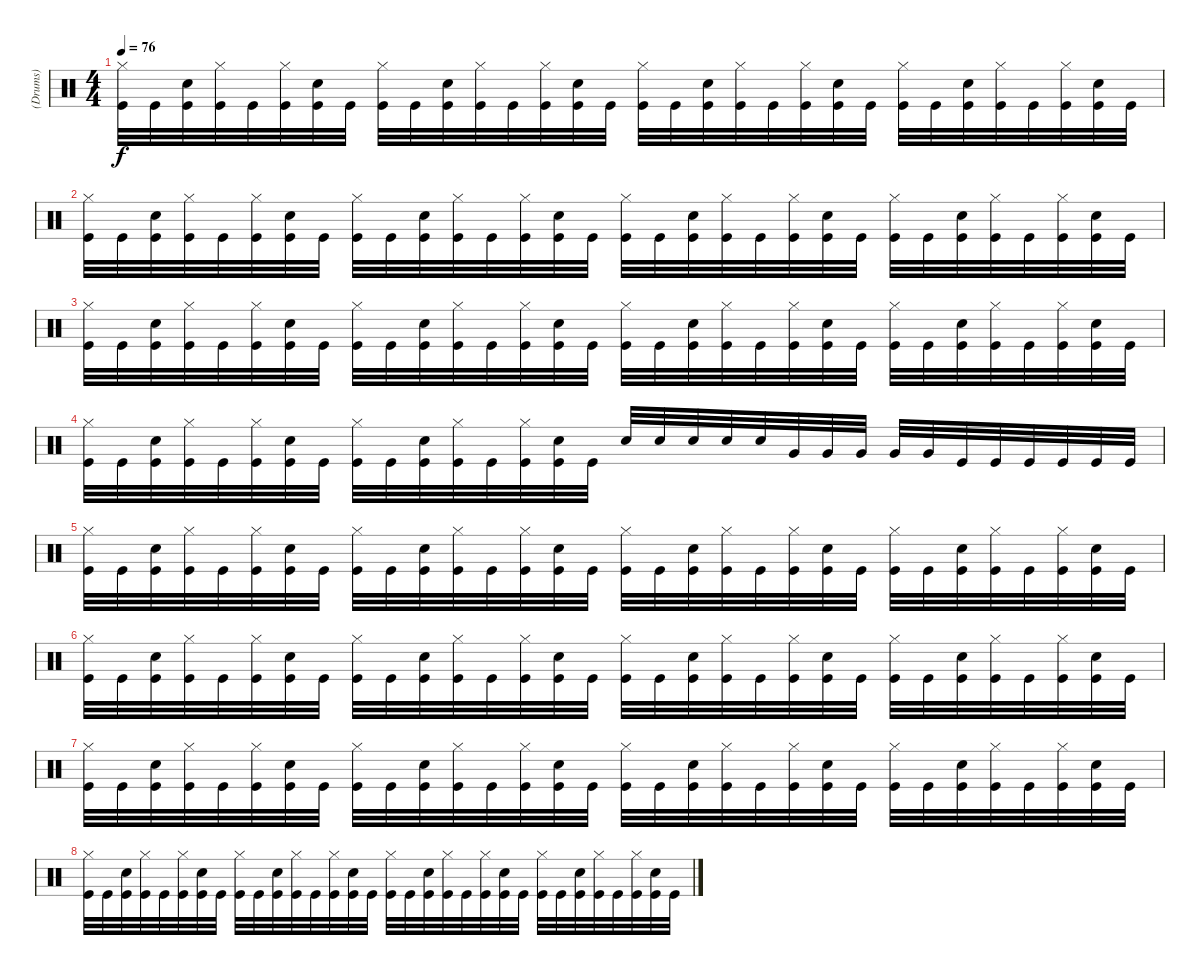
\track ("(Drums)" "(Drums)") {instrument percussion}
\staff {score}
\articulation defaults
\ts (4 4)
\tempo 76
\clef neutral
\ks c
("Hi-Hat (closed)" "Kick (hit)").32{dy f} "Kick (hit)".32 ("Electric Snare (hit)" "Kick (hit)").32 ("Hi-Hat (closed)" "Kick (hit)").32 "Kick (hit)".32 ("Hi-Hat (closed)" "Kick (hit)").32 ("Electric Snare (hit)" "Kick (hit)").32 "Kick (hit)".32 ("Hi-Hat (closed)" "Kick (hit)").32 "Kick (hit)".32 ("Electric Snare (hit)" "Kick (hit)").32 ("Hi-Hat (closed)" "Kick (hit)").32 "Kick (hit)".32 ("Hi-Hat (closed)" "Kick (hit)").32 ("Electric Snare (hit)" "Kick (hit)").32 "Kick (hit)".32 ("Hi-Hat (closed)" "Kick (hit)").32 "Kick (hit)".32 ("Electric Snare (hit)" "Kick (hit)").32 ("Hi-Hat (closed)" "Kick (hit)").32 "Kick (hit)".32 ("Hi-Hat (closed)" "Kick (hit)").32 ("Electric Snare (hit)" "Kick (hit)").32 "Kick (hit)".32 ("Hi-Hat (closed)" "Kick (hit)").32 "Kick (hit)".32 ("Electric Snare (hit)" "Kick (hit)").32 ("Hi-Hat (closed)" "Kick (hit)").32 "Kick (hit)".32 ("Hi-Hat (closed)" "Kick (hit)").32 ("Electric Snare (hit)" "Kick (hit)").32 "Kick (hit)".32 |
("Hi-Hat (closed)" "Kick (hit)").32 "Kick (hit)".32 ("Electric Snare (hit)" "Kick (hit)").32 ("Hi-Hat (closed)" "Kick (hit)").32 "Kick (hit)".32 ("Hi-Hat (closed)" "Kick (hit)").32 ("Electric Snare (hit)" "Kick (hit)").32 "Kick (hit)".32 ("Hi-Hat (closed)" "Kick (hit)").32 "Kick (hit)".32 ("Electric Snare (hit)" "Kick (hit)").32 ("Hi-Hat (closed)" "Kick (hit)").32 "Kick (hit)".32 ("Hi-Hat (closed)" "Kick (hit)").32 ("Electric Snare (hit)" "Kick (hit)").32 "Kick (hit)".32 ("Hi-Hat (closed)" "Kick (hit)").32 "Kick (hit)".32 ("Electric Snare (hit)" "Kick (hit)").32 ("Hi-Hat (closed)" "Kick (hit)").32 "Kick (hit)".32 ("Hi-Hat (closed)" "Kick (hit)").32 ("Electric Snare (hit)" "Kick (hit)").32 "Kick (hit)".32 ("Hi-Hat (closed)" "Kick (hit)").32 "Kick (hit)".32 ("Electric Snare (hit)" "Kick (hit)").32 ("Hi-Hat (closed)" "Kick (hit)").32 "Kick (hit)".32 ("Hi-Hat (closed)" "Kick (hit)").32 ("Electric Snare (hit)" "Kick (hit)").32 "Kick (hit)".32 |
("Hi-Hat (closed)" "Kick (hit)").32 "Kick (hit)".32 ("Electric Snare (hit)" "Kick (hit)").32 ("Hi-Hat (closed)" "Kick (hit)").32 "Kick (hit)".32 ("Hi-Hat (closed)" "Kick (hit)").32 ("Electric Snare (hit)" "Kick (hit)").32 "Kick (hit)".32 ("Hi-Hat (closed)" "Kick (hit)").32 "Kick (hit)".32 ("Electric Snare (hit)" "Kick (hit)").32 ("Hi-Hat (closed)" "Kick (hit)").32 "Kick (hit)".32 ("Hi-Hat (closed)" "Kick (hit)").32 ("Electric Snare (hit)" "Kick (hit)").32 "Kick (hit)".32 ("Hi-Hat (closed)" "Kick (hit)").32 "Kick (hit)".32 ("Electric Snare (hit)" "Kick (hit)").32 ("Hi-Hat (closed)" "Kick (hit)").32 "Kick (hit)".32 ("Hi-Hat (closed)" "Kick (hit)").32 ("Electric Snare (hit)" "Kick (hit)").32 "Kick (hit)".32 ("Hi-Hat (closed)" "Kick (hit)").32 "Kick (hit)".32 ("Electric Snare (hit)" "Kick (hit)").32 ("Hi-Hat (closed)" "Kick (hit)").32 "Kick (hit)".32 ("Hi-Hat (closed)" "Kick (hit)").32 ("Electric Snare (hit)" "Kick (hit)").32 "Kick (hit)".32 |
("Hi-Hat (closed)" "Kick (hit)").32 "Kick (hit)".32 ("Electric Snare (hit)" "Kick (hit)").32 ("Hi-Hat (closed)" "Kick (hit)").32 "Kick (hit)".32 ("Hi-Hat (closed)" "Kick (hit)").32 ("Electric Snare (hit)" "Kick (hit)").32 "Kick (hit)".32 ("Hi-Hat (closed)" "Kick (hit)").32 "Kick (hit)".32 ("Electric Snare (hit)" "Kick (hit)").32 ("Hi-Hat (closed)" "Kick (hit)").32 "Kick (hit)".32 ("Hi-Hat (closed)" "Kick (hit)").32 ("Electric Snare (hit)" "Kick (hit)").32 "Kick (hit)".32 "Electric Snare (hit)".32 "Electric Snare (hit)".32 "Electric Snare (hit)".32 "Electric Snare (hit)".32 "Electric Snare (hit)".32 "Very Low Tom (hit)".32 "Very Low Tom (hit)".32 "Very Low Tom (hit)".32 "Very Low Tom (hit)".32 "Very Low Tom (hit)".32 "Kick (hit)".32 "Kick (hit)".32 "Kick (hit)".32 "Kick (hit)".32 "Kick (hit)".32 "Kick (hit)".32 |
("Hi-Hat (closed)" "Kick (hit)").32{volume 10} "Kick (hit)".32 ("Electric Snare (hit)" "Kick (hit)").32 ("Hi-Hat (closed)" "Kick (hit)").32 "Kick (hit)".32 ("Hi-Hat (closed)" "Kick (hit)").32 ("Electric Snare (hit)" "Kick (hit)").32 "Kick (hit)".32 ("Hi-Hat (closed)" "Kick (hit)").32 "Kick (hit)".32 ("Electric Snare (hit)" "Kick (hit)").32 ("Hi-Hat (closed)" "Kick (hit)").32 "Kick (hit)".32 ("Hi-Hat (closed)" "Kick (hit)").32 ("Electric Snare (hit)" "Kick (hit)").32 "Kick (hit)".32 ("Hi-Hat (closed)" "Kick (hit)").32{volume 9} "Kick (hit)".32 ("Electric Snare (hit)" "Kick (hit)").32 ("Hi-Hat (closed)" "Kick (hit)").32 "Kick (hit)".32 ("Hi-Hat (closed)" "Kick (hit)").32 ("Electric Snare (hit)" "Kick (hit)").32 "Kick (hit)".32 ("Hi-Hat (closed)" "Kick (hit)").32 "Kick (hit)".32 ("Electric Snare (hit)" "Kick (hit)").32 ("Hi-Hat (closed)" "Kick (hit)").32 "Kick (hit)".32 ("Hi-Hat (closed)" "Kick (hit)").32 ("Electric Snare (hit)" "Kick (hit)").32 "Kick (hit)".32 |
("Hi-Hat (closed)" "Kick (hit)").32{volume 7} "Kick (hit)".32 ("Electric Snare (hit)" "Kick (hit)").32 ("Hi-Hat (closed)" "Kick (hit)").32 "Kick (hit)".32 ("Hi-Hat (closed)" "Kick (hit)").32 ("Electric Snare (hit)" "Kick (hit)").32 "Kick (hit)".32 ("Hi-Hat (closed)" "Kick (hit)").32 "Kick (hit)".32 ("Electric Snare (hit)" "Kick (hit)").32 ("Hi-Hat (closed)" "Kick (hit)").32 "Kick (hit)".32 ("Hi-Hat (closed)" "Kick (hit)").32 ("Electric Snare (hit)" "Kick (hit)").32 "Kick (hit)".32 ("Hi-Hat (closed)" "Kick (hit)").32{volume 6} "Kick (hit)".32 ("Electric Snare (hit)" "Kick (hit)").32 ("Hi-Hat (closed)" "Kick (hit)").32 "Kick (hit)".32 ("Hi-Hat (closed)" "Kick (hit)").32 ("Electric Snare (hit)" "Kick (hit)").32 "Kick (hit)".32 ("Hi-Hat (closed)" "Kick (hit)").32 "Kick (hit)".32 ("Electric Snare (hit)" "Kick (hit)").32 ("Hi-Hat (closed)" "Kick (hit)").32 "Kick (hit)".32 ("Hi-Hat (closed)" "Kick (hit)").32 ("Electric Snare (hit)" "Kick (hit)").32 "Kick (hit)".32 |
("Hi-Hat (closed)" "Kick (hit)").32{volume 4} "Kick (hit)".32 ("Electric Snare (hit)" "Kick (hit)").32 ("Hi-Hat (closed)" "Kick (hit)").32 "Kick (hit)".32 ("Hi-Hat (closed)" "Kick (hit)").32 ("Electric Snare (hit)" "Kick (hit)").32 "Kick (hit)".32 ("Hi-Hat (closed)" "Kick (hit)").32 "Kick (hit)".32 ("Electric Snare (hit)" "Kick (hit)").32 ("Hi-Hat (closed)" "Kick (hit)").32 "Kick (hit)".32 ("Hi-Hat (closed)" "Kick (hit)").32 ("Electric Snare (hit)" "Kick (hit)").32 "Kick (hit)".32 ("Hi-Hat (closed)" "Kick (hit)").32 "Kick (hit)".32 ("Electric Snare (hit)" "Kick (hit)").32 ("Hi-Hat (closed)" "Kick (hit)").32{volume 3} "Kick (hit)".32 ("Hi-Hat (closed)" "Kick (hit)").32 ("Electric Snare (hit)" "Kick (hit)").32 "Kick (hit)".32 ("Hi-Hat (closed)" "Kick (hit)").32 "Kick (hit)".32 ("Electric Snare (hit)" "Kick (hit)").32 ("Hi-Hat (closed)" "Kick (hit)").32 "Kick (hit)".32 ("Hi-Hat (closed)" "Kick (hit)").32 ("Electric Snare (hit)" "Kick (hit)").32 "Kick (hit)".32 |
("Hi-Hat (closed)" "Kick (hit)").32 "Kick (hit)".32 ("Electric Snare (hit)" "Kick (hit)").32 ("Hi-Hat (closed)" "Kick (hit)").32 "Kick (hit)".32 ("Hi-Hat (closed)" "Kick (hit)").32 ("Electric Snare (hit)" "Kick (hit)").32 "Kick (hit)".32 ("Hi-Hat (closed)" "Kick (hit)").32 "Kick (hit)".32 ("Electric Snare (hit)" "Kick (hit)").32 ("Hi-Hat (closed)" "Kick (hit)").32 "Kick (hit)".32 ("Hi-Hat (closed)" "Kick (hit)").32 ("Electric Snare (hit)" "Kick (hit)").32 "Kick (hit)".32 ("Hi-Hat (closed)" "Kick (hit)").32{volume 1} "Kick (hit)".32 ("Electric Snare (hit)" "Kick (hit)").32 ("Hi-Hat (closed)" "Kick (hit)").32 "Kick (hit)".32 ("Hi-Hat (closed)" "Kick (hit)").32 ("Electric Snare (hit)" "Kick (hit)").32 "Kick (hit)".32 ("Hi-Hat (closed)" "Kick (hit)").32 "Kick (hit)".32 ("Electric Snare (hit)" "Kick (hit)").32 ("Hi-Hat (closed)" "Kick (hit)").32{volume 1} "Kick (hit)".32 ("Hi-Hat (closed)" "Kick (hit)").32 ("Electric Snare (hit)" "Kick (hit)").32 "Kick (hit)".32
